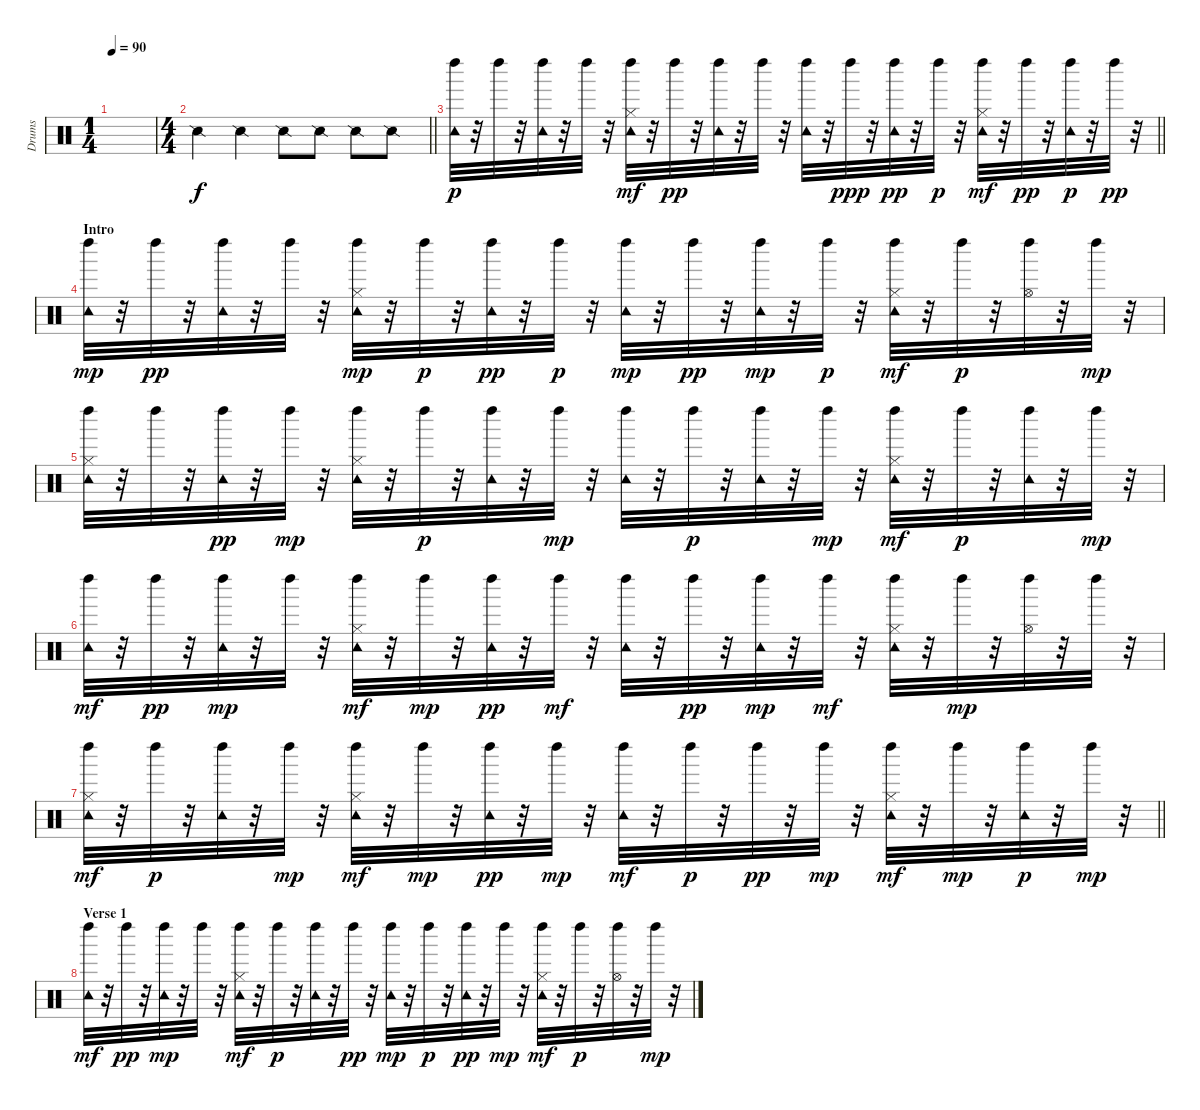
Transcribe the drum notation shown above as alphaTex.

\track ("Drums" "Drums") {instrument percussion}
\staff {score}
\articulation defaults
\ts (1 4)
\tempo 90
\clef neutral
\ks c
|
\ts (4 4)
\barLineRight lightlight "Snare (side stick) 2".4 "Snare (side stick) 2".4 "Snare (side stick) 2".8 "Snare (side stick) 2".8 "Snare (side stick) 2".8 "Snare (side stick) 2".8
|
\barLineRight lightlight
("Tambourine (hit)" "Left Maraca (hit)").32{dy p} r.32 "Left Maraca (hit)".32 r.32 ("Tambourine (hit)" "Left Maraca (hit)").32 r.32 "Left Maraca (hit)".32 r.32 ("Hi-Hat (closed)" "Tambourine (hit)" "Left Maraca (hit)").32{dy mf} r.32 "Left Maraca (hit)".32{dy pp} r.32 ("Tambourine (hit)" "Left Maraca (hit)").32 r.32 "Left Maraca (hit)".32 r.32 ("Tambourine (hit)" "Left Maraca (hit)").32 r.32 "Left Maraca (hit)".32{dy ppp} r.32 ("Tambourine (hit)" "Left Maraca (hit)").32{dy pp} r.32 "Left Maraca (hit)".32{dy p} r.32 ("Hi-Hat (closed)" "Tambourine (hit)" "Left Maraca (hit)").32{dy mf} r.32 "Left Maraca (hit)".32{dy pp} r.32 ("Tambourine (hit)" "Left Maraca (hit)").32{dy p} r.32 "Left Maraca (hit)".32{dy pp} r.32 |
\section ("" "Intro")
("Tambourine (hit)" "Left Maraca (hit)").32{dy mp} r.32 "Left Maraca (hit)".32{dy pp} r.32 ("Tambourine (hit)" "Left Maraca (hit)").32 r.32 "Left Maraca (hit)".32 r.32 ("Hi-Hat (closed)" "Tambourine (hit)" "Left Maraca (hit)").32{dy mp} r.32 "Left Maraca (hit)".32{dy p} r.32 ("Tambourine (hit)" "Left Maraca (hit)").32{dy pp} r.32 "Left Maraca (hit)".32{dy p} r.32 ("Tambourine (hit)" "Left Maraca (hit)").32{dy mp} r.32 "Left Maraca (hit)".32{dy pp} r.32 ("Tambourine (hit)" "Left Maraca (hit)").32{dy mp} r.32 "Left Maraca (hit)".32{dy p} r.32 ("Hi-Hat (closed)" "Tambourine (hit)" "Left Maraca (hit)").32{dy mf} r.32 "Left Maraca (hit)".32{dy p} r.32 ("Hi-Hat (open)" "Left Maraca (hit)").32 r.32 "Left Maraca (hit)".32{dy mp} r.32 |
("Hi-Hat (closed)" "Tambourine (hit)" "Left Maraca (hit)").32 r.32 "Left Maraca (hit)".32 r.32 ("Tambourine (hit)" "Left Maraca (hit)").32{dy pp} r.32 "Left Maraca (hit)".32{dy mp} r.32 ("Hi-Hat (closed)" "Tambourine (hit)" "Left Maraca (hit)").32 r.32 "Left Maraca (hit)".32{dy p} r.32 ("Tambourine (hit)" "Left Maraca (hit)").32 r.32 "Left Maraca (hit)".32{dy mp} r.32 ("Tambourine (hit)" "Left Maraca (hit)").32 r.32 "Left Maraca (hit)".32{dy p} r.32 ("Tambourine (hit)" "Left Maraca (hit)").32 r.32 "Left Maraca (hit)".32{dy mp} r.32 ("Hi-Hat (closed)" "Tambourine (hit)" "Left Maraca (hit)").32{dy mf} r.32 "Left Maraca (hit)".32{dy p} r.32 ("Tambourine (hit)" "Left Maraca (hit)").32 r.32 "Left Maraca (hit)".32{dy mp} r.32 |
("Tambourine (hit)" "Left Maraca (hit)").32{dy mf} r.32 "Left Maraca (hit)".32{dy pp} r.32 ("Tambourine (hit)" "Left Maraca (hit)").32{dy mp} r.32 "Left Maraca (hit)".32 r.32 ("Hi-Hat (closed)" "Tambourine (hit)" "Left Maraca (hit)").32{dy mf} r.32 "Left Maraca (hit)".32{dy mp} r.32 ("Tambourine (hit)" "Left Maraca (hit)").32{dy pp} r.32 "Left Maraca (hit)".32{dy mf} r.32 ("Tambourine (hit)" "Left Maraca (hit)").32 r.32 "Left Maraca (hit)".32{dy pp} r.32 ("Tambourine (hit)" "Left Maraca (hit)").32{dy mp} r.32 "Left Maraca (hit)".32{dy mf} r.32 ("Hi-Hat (closed)" "Tambourine (hit)" "Left Maraca (hit)").32 r.32 "Left Maraca (hit)".32{dy mp} r.32 ("Hi-Hat (open)" "Left Maraca (hit)").32 r.32 "Left Maraca (hit)".32 r.32 |
\barLineRight lightlight
("Hi-Hat (closed)" "Tambourine (hit)" "Left Maraca (hit)").32{dy mf} r.32 "Left Maraca (hit)".32{dy p} r.32 ("Tambourine (hit)" "Left Maraca (hit)").32 r.32 "Left Maraca (hit)".32{dy mp} r.32 ("Hi-Hat (closed)" "Tambourine (hit)" "Left Maraca (hit)").32{dy mf} r.32 "Left Maraca (hit)".32{dy mp} r.32 ("Tambourine (hit)" "Left Maraca (hit)").32{dy pp} r.32 "Left Maraca (hit)".32{dy mp} r.32 ("Tambourine (hit)" "Left Maraca (hit)").32{dy mf} r.32 "Left Maraca (hit)".32{dy p} r.32 "Left Maraca (hit)".32{dy pp} r.32 "Left Maraca (hit)".32{dy mp} r.32 ("Hi-Hat (closed)" "Tambourine (hit)" "Left Maraca (hit)").32{dy mf} r.32 "Left Maraca (hit)".32{dy mp} r.32 ("Tambourine (hit)" "Left Maraca (hit)").32{dy p} r.32 "Left Maraca (hit)".32{dy mp} r.32 |
\section ("" "Verse 1")
("Tambourine (hit)" "Left Maraca (hit)").32{dy mf} r.32 "Left Maraca (hit)".32{dy pp} r.32 ("Tambourine (hit)" "Left Maraca (hit)").32{dy mp} r.32 "Left Maraca (hit)".32 r.32 ("Hi-Hat (closed)" "Tambourine (hit)" "Left Maraca (hit)").32{dy mf} r.32 "Left Maraca (hit)".32{dy p} r.32 ("Tambourine (hit)" "Left Maraca (hit)").32 r.32 "Left Maraca (hit)".32{dy pp} r.32 ("Tambourine (hit)" "Left Maraca (hit)").32{dy mp} r.32 "Left Maraca (hit)".32{dy p} r.32 ("Tambourine (hit)" "Left Maraca (hit)").32{dy pp} r.32 "Left Maraca (hit)".32{dy mp} r.32 ("Hi-Hat (closed)" "Tambourine (hit)" "Left Maraca (hit)").32{dy mf} r.32 "Left Maraca (hit)".32{dy p} r.32 ("Hi-Hat (open)" "Left Maraca (hit)").32 r.32 "Left Maraca (hit)".32{dy mp} r.32
